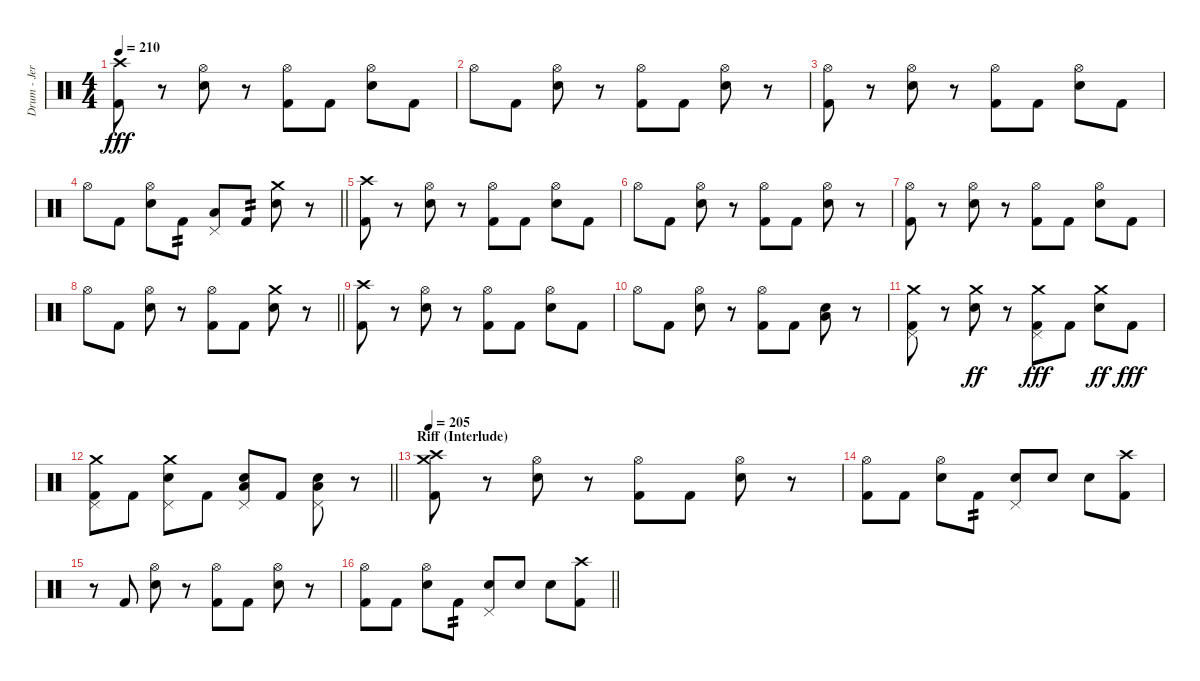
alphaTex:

\track ("Drum - Jerinx" "Drum - Jer") {instrument percussion}
\staff {score}
\articulation defaults
\ts (4 4)
\tempo 210
\clef neutral
\ks c
("Kick (hit) 2" "Crash high (hit)").8{dy fff} r.8 ("Hi-Hat (open)" "Snare (hit) 2").8 r.8 ("Hi-Hat (open)" "Kick (hit) 2").8 "Kick (hit) 2".8 ("Hi-Hat (open)" "Snare (hit) 2").8 "Kick (hit) 2".8 |
"Hi-Hat (open)".8 "Kick (hit) 2".8 ("Hi-Hat (open)" "Snare (hit) 2").8 r.8 ("Hi-Hat (open)" "Kick (hit) 2").8 "Kick (hit) 2".8 ("Hi-Hat (open)" "Snare (hit) 2").8 r.8 |
("Hi-Hat (open)" "Kick (hit) 2").8 r.8 ("Hi-Hat (open)" "Snare (hit) 2").8 r.8 ("Hi-Hat (open)" "Kick (hit) 2").8 "Kick (hit) 2".8 ("Hi-Hat (open)" "Snare (hit) 2").8 "Kick (hit) 2".8 |
\barLineRight lightlight "Hi-Hat (open)".8 "Kick (hit) 2".8
("Hi-Hat (open)" "Snare (hit) 2").8 "Kick (hit) 2".8{tp 2} ("Pedal Hi-Hat (hit)" "Low Tom (hit)").8 "Kick (hit) 2".8{tp 2} ("Snare (hit) 2" "Crash medium (hit)").8 r.8 |
("Kick (hit) 2" "Crash high (hit)").8 r.8 ("Hi-Hat (open)" "Snare (hit) 2").8 r.8 ("Hi-Hat (open)" "Kick (hit) 2").8 "Kick (hit) 2".8 ("Hi-Hat (open)" "Snare (hit) 2").8 "Kick (hit) 2".8 |
"Hi-Hat (open)".8 "Kick (hit) 2".8 ("Hi-Hat (open)" "Snare (hit) 2").8 r.8 ("Hi-Hat (open)" "Kick (hit) 2").8 "Kick (hit) 2".8 ("Hi-Hat (open)" "Snare (hit) 2").8 r.8 |
("Hi-Hat (open)" "Kick (hit) 2").8 r.8 ("Hi-Hat (open)" "Snare (hit) 2").8 r.8 ("Hi-Hat (open)" "Kick (hit) 2").8 "Kick (hit) 2".8 ("Hi-Hat (open)" "Snare (hit) 2").8 "Kick (hit) 2".8 |
\barLineRight lightlight "Hi-Hat (open)".8 "Kick (hit) 2".8
("Hi-Hat (open)" "Snare (hit) 2").8 r.8 ("Hi-Hat (open)" "Kick (hit) 2").8 "Kick (hit) 2".8 ("Snare (hit) 2" "Crash medium (hit)").8 r.8 |
("Kick (hit) 2" "Crash high (hit)").8 r.8 ("Hi-Hat (open)" "Snare (hit) 2").8 r.8 ("Hi-Hat (open)" "Kick (hit) 2").8 "Kick (hit) 2".8 ("Hi-Hat (open)" "Snare (hit) 2").8 "Kick (hit) 2".8 |
"Hi-Hat (open)".8 "Kick (hit) 2".8 ("Hi-Hat (open)" "Snare (hit) 2").8 r.8 ("Hi-Hat (open)" "Kick (hit) 2").8 "Kick (hit) 2".8 ("Snare (hit) 2" "Low Floor Tom (hit)").8 r.8 |
("Pedal Hi-Hat (hit)" "Kick (hit) 2" "Crash medium (hit)").8 r.8 ("Snare (hit) 2" "Crash medium (hit)").8{dy ff} r.8 ("Pedal Hi-Hat (hit)" "Kick (hit) 2" "Crash medium (hit)").8{dy fff} "Kick (hit) 2".8 ("Snare (hit) 2" "Crash medium (hit)").8{dy ff} "Kick (hit) 2".8{dy fff} |
\barLineRight lightlight
("Pedal Hi-Hat (hit)" "Kick (hit) 2" "Crash medium (hit)").8 "Kick (hit) 2".8 ("Pedal Hi-Hat (hit)" "Snare (hit) 2" "Crash medium (hit)").8 "Kick (hit) 2".8 ("Pedal Hi-Hat (hit)" "Snare (hit) 2" "Low Floor Tom (hit)").8 "Kick (hit) 2".8 ("Pedal Hi-Hat (hit)" "Snare (hit) 2" "Low Floor Tom (hit)").8 r.8 |
\section ("" "Riff (Interlude)")
\tempo 205
("Kick (hit) 2" "Crash medium (hit)" "Crash high (hit)").8 r.8 ("Hi-Hat (open)" "Snare (hit) 2").8 r.8 ("Hi-Hat (open)" "Kick (hit) 2").8 "Kick (hit) 2".8 ("Hi-Hat (open)" "Snare (hit) 2").8 r.8 |
("Hi-Hat (open)" "Kick (hit) 2").8 "Kick (hit) 2".8 ("Hi-Hat (open)" "Snare (hit) 2").8 "Kick (hit) 2".8{tp 2} ("Pedal Hi-Hat (hit)" "Snare (hit) 2").8 "Snare (hit) 2".8 "Snare (hit) 2".8 ("Kick (hit) 2" "Crash high (hit)").8 |
r.8 "Kick (hit) 2".8 ("Hi-Hat (open)" "Snare (hit) 2").8 r.8 ("Hi-Hat (open)" "Kick (hit) 2").8 "Kick (hit) 2".8 ("Hi-Hat (open)" "Snare (hit) 2").8 r.8 |
\barLineRight lightlight
("Hi-Hat (open)" "Kick (hit) 2").8 "Kick (hit) 2".8 ("Hi-Hat (open)" "Snare (hit) 2").8 "Kick (hit) 2".8{tp 2} ("Pedal Hi-Hat (hit)" "Snare (hit) 2").8 "Snare (hit) 2".8 "Snare (hit) 2".8 ("Kick (hit) 2" "Crash high (hit)").8
